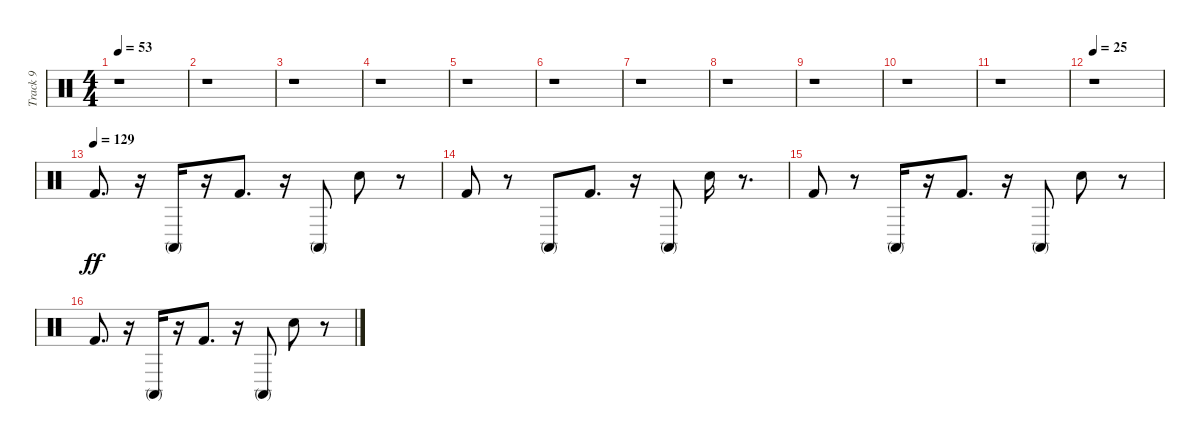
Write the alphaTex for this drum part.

\track ("Track 9" "Track 9") {instrument percussion}
\staff {score}
\articulation defaults
\ts (4 4)
\tempo 53
\clef neutral
\ks c
r.1{dy ff} |
r.1 |
r.1 |
r.1 |
r.1 |
r.1 |
r.1 |
r.1 |
r.1 |
r.1 |
r.1 |
\tempo 25
r.1 |
\tempo (129)
"Kick (hit) 2".8{d} r.16 "Conga high (mute)".16 r.16 "Kick (hit) 2".8{d} r.16 "Conga high (mute)".8 "Snare (hit) 2".8 r.8 |
"Kick (hit) 2".8 r.8 "Conga high (mute)".8 "Kick (hit) 2".8{d} r.16 "Conga high (mute)".8 "Snare (hit) 2".16 r.8{d} |
"Kick (hit) 2".8 r.8 "Conga high (mute)".16 r.16 "Kick (hit) 2".8{d} r.16 "Conga high (mute)".8 "Snare (hit) 2".8 r.8 |
"Kick (hit) 2".8{d} r.16 "Conga high (mute)".16 r.16 "Kick (hit) 2".8{d} r.16 "Conga high (mute)".8 "Snare (hit) 2".8 r.8
